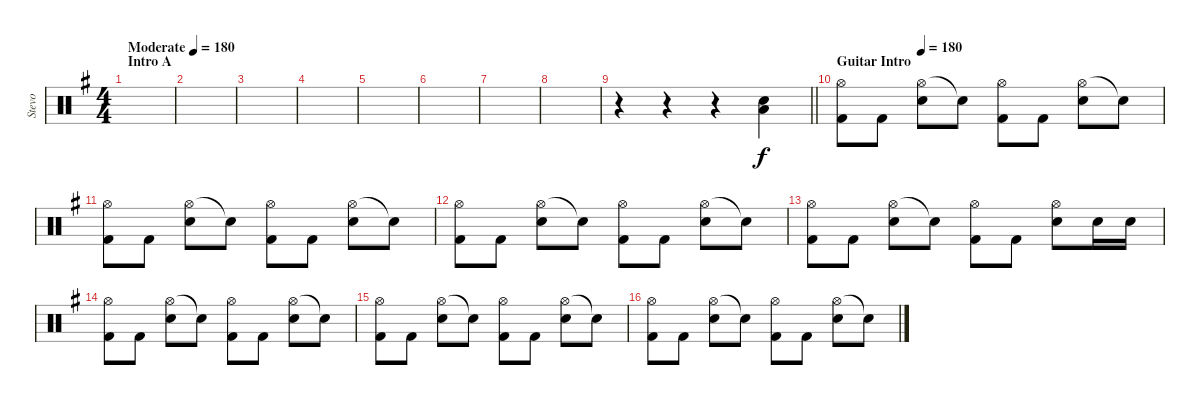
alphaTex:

\track ("Stevo" "Stevo") {instrument percussion}
\staff {score}
\articulation defaults
\ts (4 4)
\section ("" "Intro A")
\tempo (180 "Moderate")
\clef neutral
\ks g
|
|
|
|
|
|
|
|
\barLineRight lightlight
r.4 r.4 r.4 ("Low Tom (hit)" "Electric Snare (hit)").4 |
\section ("" "Guitar Intro")
\tempo (180 0.25)
("Hi-Hat (open)" "Kick (hit) 2").8 "Kick (hit) 2".8 ("Hi-Hat (open)" "Electric Snare (hit)").8 "Snare (hit) 2"{t}.8 ("Hi-Hat (open)" "Kick (hit) 2").8 "Kick (hit) 2".8 ("Hi-Hat (open)" "Electric Snare (hit)").8 "Snare (hit) 2"{t}.8 |
("Hi-Hat (open)" "Kick (hit) 2").8 "Kick (hit) 2".8 ("Hi-Hat (open)" "Electric Snare (hit)").8 "Snare (hit) 2"{t}.8 ("Hi-Hat (open)" "Kick (hit) 2").8 "Kick (hit) 2".8 ("Hi-Hat (open)" "Electric Snare (hit)").8 "Snare (hit) 2"{t}.8 |
("Hi-Hat (open)" "Kick (hit) 2").8 "Kick (hit) 2".8 ("Hi-Hat (open)" "Electric Snare (hit)").8 "Snare (hit) 2"{t}.8 ("Hi-Hat (open)" "Kick (hit) 2").8 "Kick (hit) 2".8 ("Hi-Hat (open)" "Electric Snare (hit)").8 "Snare (hit) 2"{t}.8 |
("Hi-Hat (open)" "Kick (hit) 2").8 "Kick (hit) 2".8 ("Hi-Hat (open)" "Electric Snare (hit)").8 "Snare (hit) 2"{t}.8 ("Hi-Hat (open)" "Kick (hit) 2").8 "Kick (hit) 2".8 ("Hi-Hat (open)" "Electric Snare (hit)").8 "Electric Snare (hit)".16 "Electric Snare (hit)".16 |
("Hi-Hat (open)" "Kick (hit) 2").8 "Kick (hit) 2".8 ("Hi-Hat (open)" "Electric Snare (hit)").8 "Snare (hit) 2"{t}.8 ("Hi-Hat (open)" "Kick (hit) 2").8 "Kick (hit) 2".8 ("Hi-Hat (open)" "Electric Snare (hit)").8 "Snare (hit) 2"{t}.8 |
("Hi-Hat (open)" "Kick (hit) 2").8 "Kick (hit) 2".8 ("Hi-Hat (open)" "Electric Snare (hit)").8 "Snare (hit) 2"{t}.8 ("Hi-Hat (open)" "Kick (hit) 2").8 "Kick (hit) 2".8 ("Hi-Hat (open)" "Electric Snare (hit)").8 "Snare (hit) 2"{t}.8 |
("Hi-Hat (open)" "Kick (hit) 2").8 "Kick (hit) 2".8 ("Hi-Hat (open)" "Electric Snare (hit)").8 "Snare (hit) 2"{t}.8 ("Hi-Hat (open)" "Kick (hit) 2").8 "Kick (hit) 2".8 ("Hi-Hat (open)" "Electric Snare (hit)").8 "Snare (hit) 2"{t}.8
